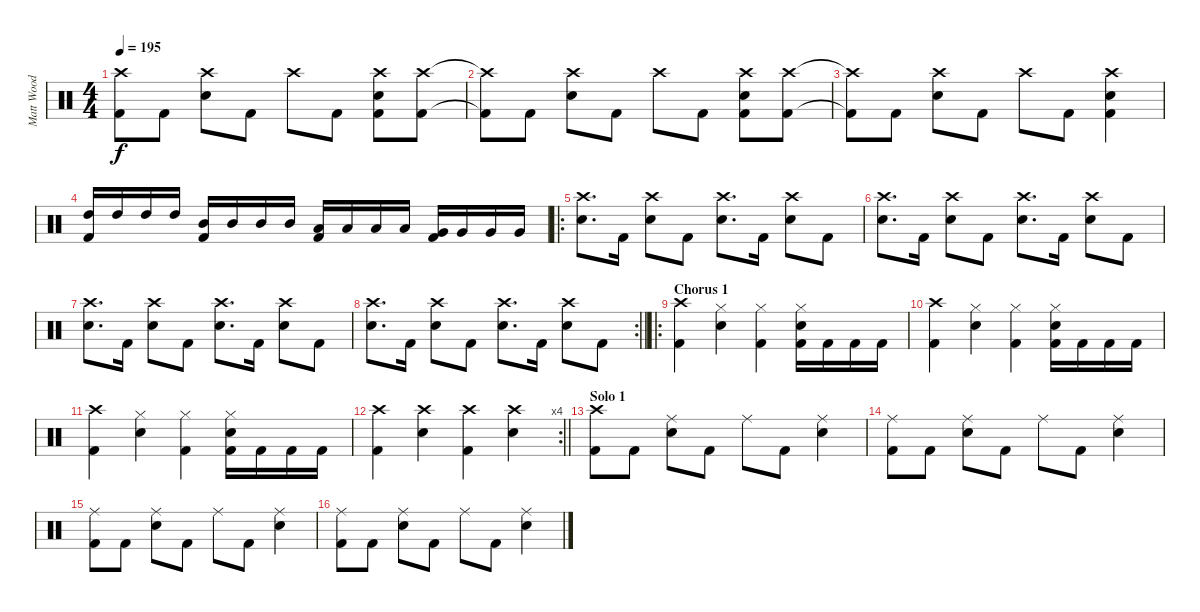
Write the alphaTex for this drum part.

\track ("Matt Wood" "Matt Wood") {instrument percussion}
\staff {score}
\articulation defaults
\ts (4 4)
\tempo 195
\clef neutral
\ks c
("Crash high (hit)"{t} "Kick (hit) 2"{t}).8{dy f} "Kick (hit) 2".8 ("Crash high (hit)" "Snare (hit) 2").8 "Kick (hit) 2".8 "Crash high (hit)".8 "Kick (hit) 2".8 ("Crash high (hit)" "Snare (hit) 2" "Kick (hit) 2").8 ("Crash high (hit)" "Kick (hit) 2").8 |
("Crash high (hit)"{t} "Kick (hit) 2"{t}).8 "Kick (hit) 2".8 ("Crash high (hit)" "Snare (hit) 2").8 "Kick (hit) 2".8 "Crash high (hit)".8 "Kick (hit) 2".8 ("Crash high (hit)" "Snare (hit) 2" "Kick (hit) 2").8 ("Crash high (hit)" "Kick (hit) 2").8 |
("Crash high (hit)"{t} "Kick (hit) 2"{t}).8 "Kick (hit) 2".8 ("Crash high (hit)" "Snare (hit) 2").8 "Kick (hit) 2".8 "Crash high (hit)".8 "Kick (hit) 2".8 ("Crash high (hit)" "Snare (hit) 2" "Kick (hit) 2").4 |
("High Tom (hit)" "Kick (hit) 2").16 "High Tom (hit)".16 "High Tom (hit)".16 "High Tom (hit)".16 ("Mid Tom (hit)" "Kick (hit) 2").16 "Mid Tom (hit)".16 "Mid Tom (hit)".16 "Mid Tom (hit)".16 ("Low Tom (hit)" "Kick (hit) 2").16 "Low Tom (hit)".16 "Low Tom (hit)".16 "Low Tom (hit)".16 ("Very Low Tom (hit)" "Kick (hit) 2").16 "Very Low Tom (hit)".16 "Very Low Tom (hit)".16 "Very Low Tom (hit)".16 |
\ro
("Crash high (hit)" "Snare (hit) 2").8{d} "Kick (hit) 2".16 ("Crash high (hit)" "Snare (hit) 2").8 "Kick (hit) 2".8 ("Crash high (hit)" "Snare (hit) 2").8{d} "Kick (hit) 2".16 ("Crash high (hit)" "Snare (hit) 2").8 "Kick (hit) 2".8 |
("Crash high (hit)" "Snare (hit) 2").8{d} "Kick (hit) 2".16 ("Crash high (hit)" "Snare (hit) 2").8 "Kick (hit) 2".8 ("Crash high (hit)" "Snare (hit) 2").8{d} "Kick (hit) 2".16 ("Crash high (hit)" "Snare (hit) 2").8 "Kick (hit) 2".8 |
("Crash high (hit)" "Snare (hit) 2").8{d} "Kick (hit) 2".16 ("Crash high (hit)" "Snare (hit) 2").8 "Kick (hit) 2".8 ("Crash high (hit)" "Snare (hit) 2").8{d} "Kick (hit) 2".16 ("Crash high (hit)" "Snare (hit) 2").8 "Kick (hit) 2".8 |
\rc 2
\barLineRight lightlight
("Crash high (hit)" "Snare (hit) 2").8{d} "Kick (hit) 2".16 ("Crash high (hit)" "Snare (hit) 2").8 "Kick (hit) 2".8 ("Crash high (hit)" "Snare (hit) 2").8{d} "Kick (hit) 2".16 ("Crash high (hit)" "Snare (hit) 2").8 "Kick (hit) 2".8 |
\ro
\section ("" "Chorus 1")
("Crash high (hit)" "Kick (hit) 2").4 ("Hi-Hat (closed)" "Snare (hit) 2").4 ("Hi-Hat (closed)" "Kick (hit) 2").4 ("Hi-Hat (closed)" "Snare (hit) 2" "Kick (hit) 2").16 "Kick (hit) 2".16 "Kick (hit) 2".16 "Kick (hit) 2".16 |
("Crash high (hit)" "Kick (hit) 2").4 ("Hi-Hat (closed)" "Snare (hit) 2").4 ("Hi-Hat (closed)" "Kick (hit) 2").4 ("Hi-Hat (closed)" "Snare (hit) 2" "Kick (hit) 2").16 "Kick (hit) 2".16 "Kick (hit) 2".16 "Kick (hit) 2".16 |
("Crash high (hit)" "Kick (hit) 2").4 ("Hi-Hat (closed)" "Snare (hit) 2").4 ("Hi-Hat (closed)" "Kick (hit) 2").4 ("Hi-Hat (closed)" "Snare (hit) 2" "Kick (hit) 2").16 "Kick (hit) 2".16 "Kick (hit) 2".16 "Kick (hit) 2".16 |
\rc 4
\barLineRight lightlight
("Crash high (hit)" "Kick (hit) 2").4 ("Crash high (hit)" "Snare (hit) 2").4 ("Crash high (hit)" "Kick (hit) 2").4 ("Crash high (hit)" "Snare (hit) 2").4 |
\section ("" "Solo 1")
("Crash high (hit)" "Kick (hit) 2").8 "Kick (hit) 2".8 ("Ride (middle)" "Snare (hit) 2").8 "Kick (hit) 2".8 "Ride (middle)".8 "Kick (hit) 2".8 ("Ride (middle)" "Snare (hit) 2").4 |
("Ride (middle)" "Kick (hit) 2").8 "Kick (hit) 2".8 ("Ride (middle)" "Snare (hit) 2").8 "Kick (hit) 2".8 "Ride (middle)".8 "Kick (hit) 2".8 ("Ride (middle)" "Snare (hit) 2").4 |
("Ride (middle)" "Kick (hit) 2").8 "Kick (hit) 2".8 ("Ride (middle)" "Snare (hit) 2").8 "Kick (hit) 2".8 "Ride (middle)".8 "Kick (hit) 2".8 ("Ride (middle)" "Snare (hit) 2").4 |
("Ride (middle)" "Kick (hit) 2").8 "Kick (hit) 2".8 ("Ride (middle)" "Snare (hit) 2").8 "Kick (hit) 2".8 "Ride (middle)".8 "Kick (hit) 2".8 ("Ride (middle)" "Snare (hit) 2").4
